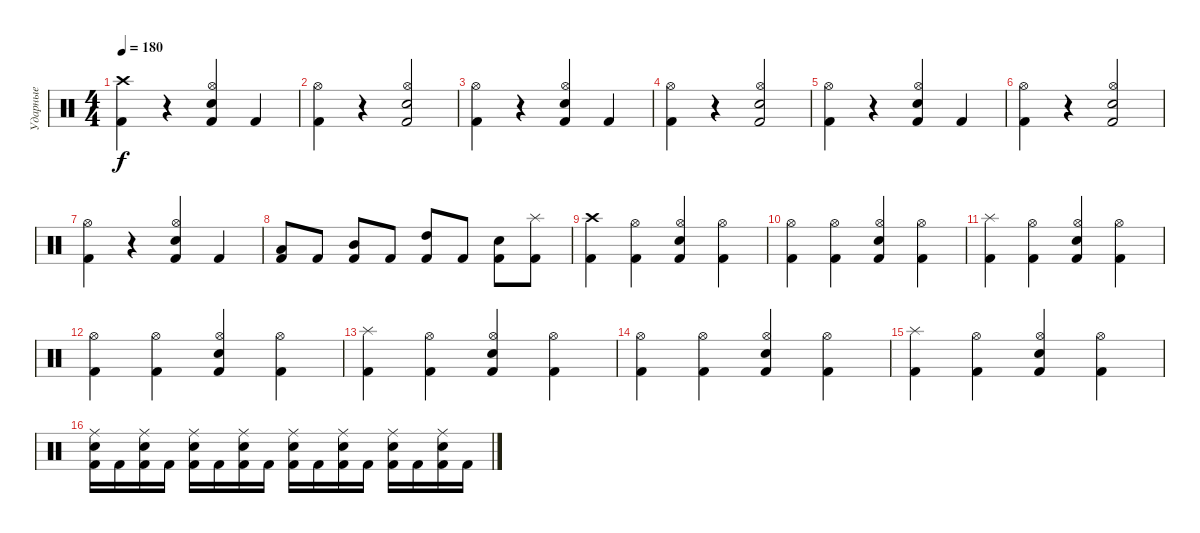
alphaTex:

\track ("Ударные" "Ударные") {instrument percussion}
\staff {score}
\articulation defaults
\ts (4 4)
\tempo 180
\clef neutral
\ks c
("Crash high (hit)" "Kick (hit) 2").4{dy f} r.4 ("Hi-Hat (open)" "Kick (hit) 2" "Electric Snare (hit)").4 "Kick (hit) 2".4 |
("Hi-Hat (open)" "Kick (hit) 2").4 r.4 ("Hi-Hat (open)" "Kick (hit) 2" "Electric Snare (hit)").2 |
("Hi-Hat (open)" "Kick (hit) 2").4 r.4 ("Hi-Hat (open)" "Kick (hit) 2" "Electric Snare (hit)").4 "Kick (hit) 2".4 |
("Hi-Hat (open)" "Kick (hit) 2").4 r.4 ("Hi-Hat (open)" "Kick (hit) 2" "Electric Snare (hit)").2 |
("Hi-Hat (open)" "Kick (hit) 2").4 r.4 ("Hi-Hat (open)" "Kick (hit) 2" "Electric Snare (hit)").4 "Kick (hit) 2".4 |
("Hi-Hat (open)" "Kick (hit) 2").4 r.4 ("Hi-Hat (open)" "Kick (hit) 2" "Electric Snare (hit)").2 |
("Hi-Hat (open)" "Kick (hit) 2").4 r.4 ("Hi-Hat (open)" "Kick (hit) 2" "Electric Snare (hit)").4 "Kick (hit) 2".4 |
("Low Tom (hit)" "Kick (hit) 2").8 "Kick (hit) 2".8 ("Mid Tom (hit)" "Kick (hit) 2").8 "Kick (hit) 2".8 ("High Tom (hit)" "Kick (hit) 2").8 "Kick (hit) 2".8 ("Electric Snare (hit)" "Kick (hit) 2").8 ("Splash (hit)" "Kick (hit) 2").8 |
("Crash high (hit)" "Kick (hit) 2").4 ("Hi-Hat (open)" "Kick (hit) 2").4 ("Hi-Hat (open)" "Kick (hit) 2" "Electric Snare (hit)").4 ("Hi-Hat (open)" "Kick (hit) 2").4 |
("Hi-Hat (open)" "Kick (hit) 2").4 ("Hi-Hat (open)" "Kick (hit) 2").4 ("Hi-Hat (open)" "Kick (hit) 2" "Electric Snare (hit)").4 ("Hi-Hat (open)" "Kick (hit) 2").4 |
("Splash (hit)" "Kick (hit) 2").4 ("Hi-Hat (open)" "Kick (hit) 2").4 ("Hi-Hat (open)" "Kick (hit) 2" "Electric Snare (hit)").4 ("Hi-Hat (open)" "Kick (hit) 2").4 |
("Hi-Hat (open)" "Kick (hit) 2").4 ("Hi-Hat (open)" "Kick (hit) 2").4 ("Hi-Hat (open)" "Kick (hit) 2" "Electric Snare (hit)").4 ("Hi-Hat (open)" "Kick (hit) 2").4 |
("Splash (hit)" "Kick (hit) 2").4 ("Hi-Hat (open)" "Kick (hit) 2").4 ("Hi-Hat (open)" "Kick (hit) 2" "Electric Snare (hit)").4 ("Hi-Hat (open)" "Kick (hit) 2").4 |
("Hi-Hat (open)" "Kick (hit) 2").4 ("Hi-Hat (open)" "Kick (hit) 2").4 ("Hi-Hat (open)" "Kick (hit) 2" "Electric Snare (hit)").4 ("Hi-Hat (open)" "Kick (hit) 2").4 |
("Splash (hit)" "Kick (hit) 2").4 ("Hi-Hat (open)" "Kick (hit) 2").4 ("Hi-Hat (open)" "Kick (hit) 2" "Electric Snare (hit)").4 ("Hi-Hat (open)" "Kick (hit) 2").4 |
("Ride (middle)" "Electric Snare (hit)" "Kick (hit) 2").16 "Kick (hit) 2".16 ("Ride (middle)" "Electric Snare (hit)" "Kick (hit) 2").16 "Kick (hit) 2".16 ("Ride (middle)" "Electric Snare (hit)" "Kick (hit) 2").16 "Kick (hit) 2".16 ("Ride (middle)" "Electric Snare (hit)" "Kick (hit) 2").16 "Kick (hit) 2".16 ("Ride (middle)" "Electric Snare (hit)" "Kick (hit) 2").16 "Kick (hit) 2".16 ("Ride (middle)" "Electric Snare (hit)" "Kick (hit) 2").16 "Kick (hit) 2".16 ("Ride (middle)" "Electric Snare (hit)" "Kick (hit) 2").16 "Kick (hit) 2".16 ("Ride (middle)" "Electric Snare (hit)" "Kick (hit) 2").16 "Kick (hit) 2".16
